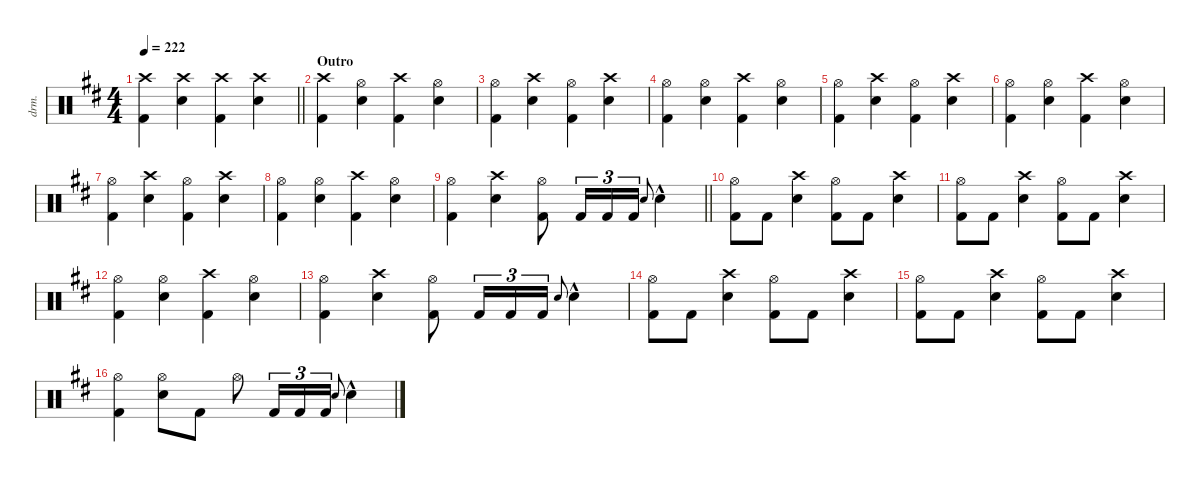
\defaultSystemsLayout 4
\hideDynamics
\bracketExtendMode nobrackets
\otherSystemsTrackNameOrientation horizontal
\track ("Lars Ulrich" "drm.") {defaultSystemsLayout 4 instrument percussion}
\staff {score}
\articulation defaults
\ts (4 4)
\tempo 222
\clef neutral
\barLineRight lightlight
\ks bminor
("Crash high (hit)"{acc forcenatural} "Kick (hit) 2"{acc forcenatural}).4{dy f beam Down} ("Crash high (hit)"{acc forcenatural} "Snare (hit) 2"{acc forcenatural}).4{beam Down} ("Crash high (hit)"{acc forcenatural} "Kick (hit) 2"{acc forcenatural}).4{beam Down} ("Crash high (hit)"{acc forcenatural} "Snare (hit) 2"{acc forcenatural}).4{beam Down} |
\section ("" "Outro")
("Crash high (hit)"{acc forcenatural} "Kick (hit) 2"{acc forcenatural}).4{beam Down} ("Hi-Hat (open)"{acc forcenatural} "Snare (hit) 2"{acc forcenatural}).4{beam Down} ("Crash high (hit)"{acc forcenatural} "Kick (hit) 2"{acc forcenatural}).4{beam Down} ("Hi-Hat (open)"{acc forcenatural} "Snare (hit) 2"{acc forcenatural}).4{beam Down} |
("Hi-Hat (open)"{acc forcenatural} "Kick (hit) 2"{acc forcenatural}).4{beam Down} ("Crash high (hit)"{acc forcenatural} "Snare (hit) 2"{acc forcenatural}).4{beam Down} ("Hi-Hat (open)"{acc forcenatural} "Kick (hit) 2"{acc forcenatural}).4{beam Down} ("Crash high (hit)"{acc forcenatural} "Snare (hit) 2"{acc forcenatural}).4{beam Down} |
("Hi-Hat (open)"{acc forcenatural} "Kick (hit) 2"{acc forcenatural}).4{beam Down} ("Hi-Hat (open)"{acc forcenatural} "Snare (hit) 2"{acc forcenatural}).4{beam Down} ("Crash high (hit)"{acc forcenatural} "Kick (hit) 2"{acc forcenatural}).4{beam Down} ("Hi-Hat (open)"{acc forcenatural} "Snare (hit) 2"{acc forcenatural}).4{beam Down} |
("Hi-Hat (open)"{acc forcenatural} "Kick (hit) 2"{acc forcenatural}).4{beam Down} ("Crash high (hit)"{acc forcenatural} "Snare (hit) 2"{acc forcenatural}).4{beam Down} ("Hi-Hat (open)"{acc forcenatural} "Kick (hit) 2"{acc forcenatural}).4{beam Down} ("Crash high (hit)"{acc forcenatural} "Snare (hit) 2"{acc forcenatural}).4{beam Down} |
("Hi-Hat (open)"{acc forcenatural} "Kick (hit) 2"{acc forcenatural}).4{beam Down} ("Hi-Hat (open)"{acc forcenatural} "Snare (hit) 2"{acc forcenatural}).4{beam Down} ("Crash high (hit)"{acc forcenatural} "Kick (hit) 2"{acc forcenatural}).4{beam Down} ("Hi-Hat (open)"{acc forcenatural} "Snare (hit) 2"{acc forcenatural}).4{beam Down} |
("Hi-Hat (open)"{acc forcenatural} "Kick (hit) 2"{acc forcenatural}).4{beam Down} ("Crash high (hit)"{acc forcenatural} "Snare (hit) 2"{acc forcenatural}).4{beam Down} ("Hi-Hat (open)"{acc forcenatural} "Kick (hit) 2"{acc forcenatural}).4{beam Down} ("Crash high (hit)"{acc forcenatural} "Snare (hit) 2"{acc forcenatural}).4{beam Down} |
("Hi-Hat (open)"{acc forcenatural} "Kick (hit) 2"{acc forcenatural}).4{beam Down} ("Hi-Hat (open)"{acc forcenatural} "Snare (hit) 2"{acc forcenatural}).4{beam Down} ("Crash high (hit)"{acc forcenatural} "Kick (hit) 2"{acc forcenatural}).4{beam Down} ("Hi-Hat (open)"{acc forcenatural} "Snare (hit) 2"{acc forcenatural}).4{beam Down} |
\barLineRight lightlight
("Hi-Hat (open)"{acc forcenatural} "Kick (hit) 2"{acc forcenatural}).4{beam Down} ("Crash high (hit)"{acc forcenatural} "Snare (hit) 2"{acc forcenatural}).4{beam Down} ("Hi-Hat (open)"{acc forcenatural} "Kick (hit) 2"{acc forcenatural}).8{beam Down} "Kick (hit) 2"{acc forcenatural}.16{tu (3 2) beam Up} "Kick (hit) 2"{acc forcenatural}.16{tu (3 2) beam Up} "Kick (hit) 2"{acc forcenatural}.16{tu (3 2) beam Up} "Electric Snare (hit)"{acc forcenatural}.8{gr onbeat dy mp beam Up} "Snare (hit) 2"{hac acc forcenatural}.4{dy f beam Down} |
("Hi-Hat (open)"{acc forcenatural} "Kick (hit) 2"{acc forcenatural}).8{beam Down} "Kick (hit) 2"{acc forcenatural}.8{beam Down} ("Crash high (hit)"{acc forcenatural} "Snare (hit) 2"{acc forcenatural}).4{beam Down} ("Hi-Hat (open)"{acc forcenatural} "Kick (hit) 2"{acc forcenatural}).8{beam Down} "Kick (hit) 2"{acc forcenatural}.8{beam Down} ("Crash high (hit)"{acc forcenatural} "Snare (hit) 2"{acc forcenatural}).4{beam Down} |
("Hi-Hat (open)"{acc forcenatural} "Kick (hit) 2"{acc forcenatural}).8{beam Down} "Kick (hit) 2"{acc forcenatural}.8{beam Down} ("Crash high (hit)"{acc forcenatural} "Snare (hit) 2"{acc forcenatural}).4{beam Down} ("Hi-Hat (open)"{acc forcenatural} "Kick (hit) 2"{acc forcenatural}).8{beam Down} "Kick (hit) 2"{acc forcenatural}.8{beam Down} ("Crash high (hit)"{acc forcenatural} "Snare (hit) 2"{acc forcenatural}).4{beam Down} |
("Hi-Hat (open)"{acc forcenatural} "Kick (hit) 2"{acc forcenatural}).4{beam Down} ("Hi-Hat (open)"{acc forcenatural} "Snare (hit) 2"{acc forcenatural}).4{beam Down} ("Crash high (hit)"{acc forcenatural} "Kick (hit) 2"{acc forcenatural}).4{beam Down} ("Hi-Hat (open)"{acc forcenatural} "Snare (hit) 2"{acc forcenatural}).4{beam Down} |
("Hi-Hat (open)"{acc forcenatural} "Kick (hit) 2"{acc forcenatural}).4{beam Down} ("Crash high (hit)"{acc forcenatural} "Snare (hit) 2"{acc forcenatural}).4{beam Down} ("Hi-Hat (open)"{acc forcenatural} "Kick (hit) 2"{acc forcenatural}).8{beam Down} "Kick (hit) 2"{acc forcenatural}.16{tu (3 2) beam Up} "Kick (hit) 2"{acc forcenatural}.16{tu (3 2) beam Up} "Kick (hit) 2"{acc forcenatural}.16{tu (3 2) beam Up} "Electric Snare (hit)"{acc forcenatural}.8{gr onbeat dy mp beam Up} "Snare (hit) 2"{hac acc forcenatural}.4{dy f beam Down} |
("Hi-Hat (open)"{acc forcenatural} "Kick (hit) 2"{acc forcenatural}).8{beam Down} "Kick (hit) 2"{acc forcenatural}.8{beam Down} ("Crash high (hit)"{acc forcenatural} "Snare (hit) 2"{acc forcenatural}).4{beam Down} ("Hi-Hat (open)"{acc forcenatural} "Kick (hit) 2"{acc forcenatural}).8{beam Down} "Kick (hit) 2"{acc forcenatural}.8{beam Down} ("Crash high (hit)"{acc forcenatural} "Snare (hit) 2"{acc forcenatural}).4{beam Down} |
("Hi-Hat (open)"{acc forcenatural} "Kick (hit) 2"{acc forcenatural}).8{beam Down} "Kick (hit) 2"{acc forcenatural}.8{beam Down} ("Crash high (hit)"{acc forcenatural} "Snare (hit) 2"{acc forcenatural}).4{beam Down} ("Hi-Hat (open)"{acc forcenatural} "Kick (hit) 2"{acc forcenatural}).8{beam Down} "Kick (hit) 2"{acc forcenatural}.8{beam Down} ("Crash high (hit)"{acc forcenatural} "Snare (hit) 2"{acc forcenatural}).4{beam Down} |
("Hi-Hat (open)"{acc forcenatural} "Kick (hit) 2"{acc forcenatural}).4{beam Down} ("Hi-Hat (open)"{acc forcenatural} "Snare (hit) 2"{acc forcenatural}).8{beam Down} "Kick (hit) 2"{acc forcenatural}.8{beam Down} "Hi-Hat (open)"{acc forcenatural}.8{beam Down} "Kick (hit) 2"{acc forcenatural}.16{tu (3 2) beam Up} "Kick (hit) 2"{acc forcenatural}.16{tu (3 2) beam Up} "Kick (hit) 2"{acc forcenatural}.16{tu (3 2) beam Up} "Electric Snare (hit)"{acc forcenatural}.8{gr onbeat dy mp beam Up} "Snare (hit) 2"{hac acc forcenatural}.4{dy f beam Down}
